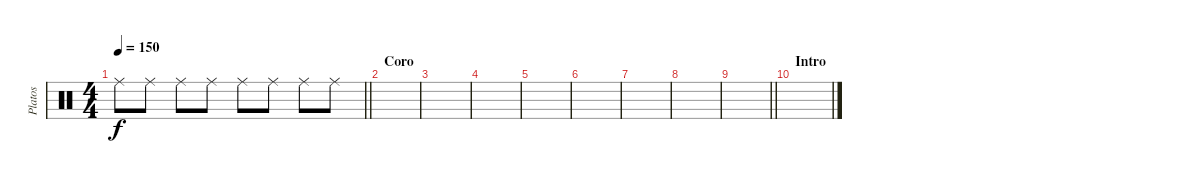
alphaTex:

\track ("Platos" "Platos") {instrument percussion}
\staff {score}
\articulation defaults
\ts (4 4)
\tempo 150
\clef neutral
\barLineRight lightlight
\ks c "Ride (middle)".8{dy f} "Ride (middle)".8 "Ride (middle)".8 "Ride (middle)".8 "Ride (middle)".8 "Ride (middle)".8 "Ride (middle)".8 "Ride (middle)".8
|
\section ("" "Coro")
|
|
|
|
|
|
|
\barLineRight lightlight
|
\section ("" "Intro")
